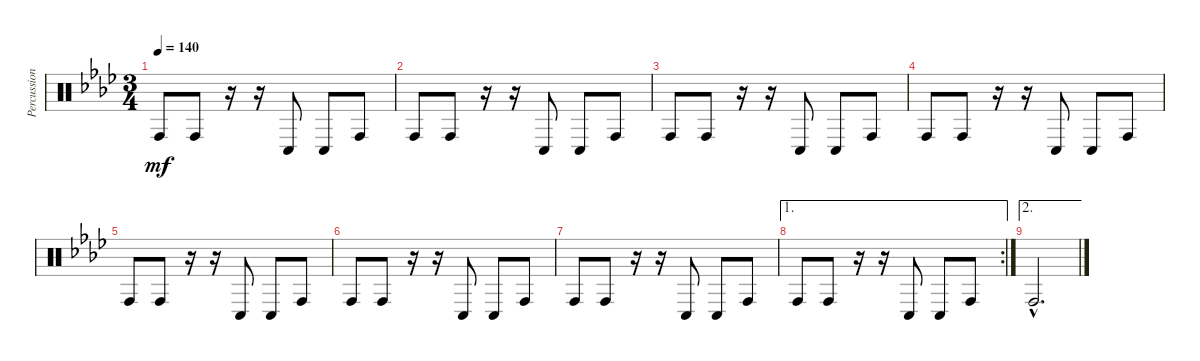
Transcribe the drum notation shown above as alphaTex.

\track ("Percussion" "Percussion") {instrument percussion}
\staff {score}
\articulation defaults
\ts (3 4)
\tempo 140
\clef neutral
\ks fminor "Conga high (hit)".8{dy mf} "Conga high (hit)".8
r.16 r.16 "Conga low (hit)".8 "Conga low (hit)".8 "Conga high (hit)".8 |
"Conga high (hit)".8 "Conga high (hit)".8 r.16 r.16 "Conga low (hit)".8 "Conga low (hit)".8 "Conga high (hit)".8 |
"Conga high (hit)".8 "Conga high (hit)".8 r.16 r.16 "Conga low (hit)".8 "Conga low (hit)".8 "Conga high (hit)".8 |
"Conga high (hit)".8 "Conga high (hit)".8 r.16 r.16 "Conga low (hit)".8 "Conga low (hit)".8 "Conga high (hit)".8 |
"Conga high (hit)".8 "Conga high (hit)".8 r.16 r.16 "Conga low (hit)".8 "Conga low (hit)".8 "Conga high (hit)".8 |
"Conga high (hit)".8 "Conga high (hit)".8 r.16 r.16 "Conga low (hit)".8 "Conga low (hit)".8 "Conga high (hit)".8 |
"Conga high (hit)".8 "Conga high (hit)".8 r.16 r.16 "Conga low (hit)".8 "Conga low (hit)".8 "Conga high (hit)".8 |
\ae 1
\rc 2 "Conga high (hit)".8 "Conga high (hit)".8
r.16 r.16 "Conga low (hit)".8 "Conga low (hit)".8 "Conga high (hit)".8 |
\ae 2 "Conga high (hit)"{hac}.2{d}
